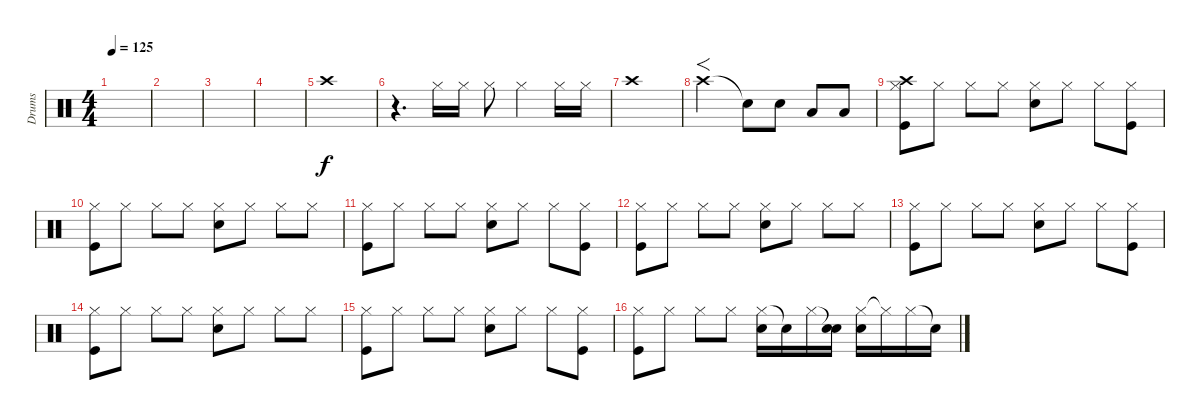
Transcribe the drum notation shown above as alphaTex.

\track ("Drums" "Drums") {instrument percussion}
\staff {score}
\articulation defaults
\ts (4 4)
\tempo 125
\clef neutral
\ks c
|
|
|
|
"Crash high (hit)".1 |
r.4{d} "Hi-Hat (closed)".16 "Hi-Hat (closed)".16 "Hi-Hat (closed)".8 "Hi-Hat (closed)".4 "Hi-Hat (closed)".16 "Hi-Hat (closed)".16 |
"Crash high (hit)".1 |
"Crash high (hit)".2{f} "Snare (hit)"{t}.8 "Snare (hit) 2".8 "Low Tom (hit)".8 "Low Tom (hit)".8 |
("Hi-Hat (closed)" "Kick (hit)" "Crash high (hit)").8 "Hi-Hat (closed)".8 "Hi-Hat (closed)".8 "Hi-Hat (closed)".8 ("Hi-Hat (closed)" "Snare (hit) 2").8 "Hi-Hat (closed)".8 "Hi-Hat (closed)".8 ("Hi-Hat (closed)" "Kick (hit)").8 |
("Hi-Hat (closed)" "Kick (hit)").8 "Hi-Hat (closed)".8 "Hi-Hat (closed)".8 "Hi-Hat (closed)".8 ("Hi-Hat (closed)" "Snare (hit) 2").8 "Hi-Hat (closed)".8 "Hi-Hat (closed)".8 "Hi-Hat (closed)".8 |
("Hi-Hat (closed)" "Kick (hit)").8 "Hi-Hat (closed)".8 "Hi-Hat (closed)".8 "Hi-Hat (closed)".8 ("Hi-Hat (closed)" "Snare (hit) 2").8 "Hi-Hat (closed)".8 "Hi-Hat (closed)".8 ("Hi-Hat (closed)" "Kick (hit)").8 |
("Hi-Hat (closed)" "Kick (hit)").8 "Hi-Hat (closed)".8 "Hi-Hat (closed)".8 "Hi-Hat (closed)".8 ("Hi-Hat (closed)" "Snare (hit) 2").8 "Hi-Hat (closed)".8 "Hi-Hat (closed)".8 "Hi-Hat (closed)".8 |
("Hi-Hat (closed)" "Kick (hit)").8 "Hi-Hat (closed)".8 "Hi-Hat (closed)".8 "Hi-Hat (closed)".8 ("Hi-Hat (closed)" "Snare (hit) 2").8 "Hi-Hat (closed)".8 "Hi-Hat (closed)".8 ("Hi-Hat (closed)" "Kick (hit)").8 |
("Hi-Hat (closed)" "Kick (hit)").8 "Hi-Hat (closed)".8 "Hi-Hat (closed)".8 "Hi-Hat (closed)".8 ("Hi-Hat (closed)" "Snare (hit) 2").8 "Hi-Hat (closed)".8 "Hi-Hat (closed)".8 "Hi-Hat (closed)".8 |
("Hi-Hat (closed)" "Kick (hit)").8 "Hi-Hat (closed)".8 "Hi-Hat (closed)".8 "Hi-Hat (closed)".8 ("Hi-Hat (closed)" "Snare (hit) 2").8 "Hi-Hat (closed)".8 "Hi-Hat (closed)".8 ("Hi-Hat (closed)" "Kick (hit)").8 |
("Hi-Hat (closed)" "Kick (hit)").8 "Hi-Hat (closed)".8 "Hi-Hat (closed)".8 "Hi-Hat (closed)".8 ("Hi-Hat (closed)" "Snare (hit) 2").16 "Snare (hit)"{t}.16 "Hi-Hat (closed)".16 ("Snare (hit)"{t} "Snare (hit) 2").16 ("Hi-Hat (closed)" "Snare (hit) 2").16 "Hi-Hat (closed)"{t}.16 "Hi-Hat (closed)".16 "Snare (hit)"{t}.16
